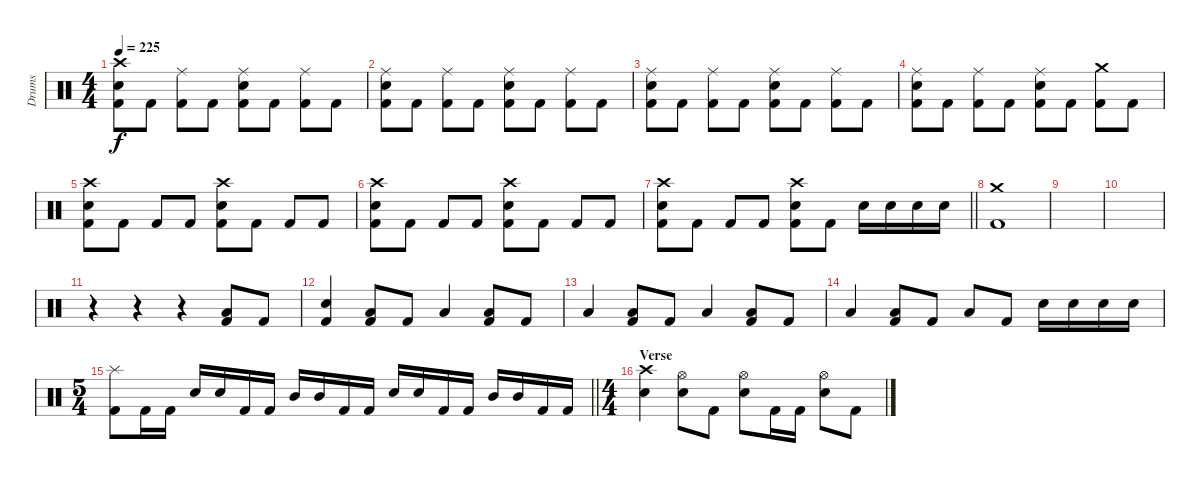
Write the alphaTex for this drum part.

\track ("Drums" "Drums") {instrument percussion}
\staff {score}
\articulation defaults
\ts (4 4)
\tempo 225
\clef neutral
\ks c
("Crash high (hit)" "Electric Snare (hit)" "Kick (hit) 2").8{dy f} "Kick (hit) 2".8 ("Ride (middle)" "Kick (hit) 2").8 "Kick (hit) 2".8 ("Ride (middle)" "Electric Snare (hit)" "Kick (hit) 2").8 "Kick (hit) 2".8 ("Ride (middle)" "Kick (hit) 2").8 "Kick (hit) 2".8 |
("Ride (middle)" "Electric Snare (hit)" "Kick (hit) 2").8 "Kick (hit) 2".8 ("Ride (middle)" "Kick (hit) 2").8 "Kick (hit) 2".8 ("Ride (middle)" "Electric Snare (hit)" "Kick (hit) 2").8 "Kick (hit) 2".8 ("Ride (middle)" "Kick (hit) 2").8 "Kick (hit) 2".8 |
("Ride (middle)" "Electric Snare (hit)" "Kick (hit) 2").8 "Kick (hit) 2".8 ("Ride (middle)" "Kick (hit) 2").8 "Kick (hit) 2".8 ("Ride (middle)" "Electric Snare (hit)" "Kick (hit) 2").8 "Kick (hit) 2".8 ("Ride (middle)" "Kick (hit) 2").8 "Kick (hit) 2".8 |
("Ride (middle)" "Electric Snare (hit)" "Kick (hit) 2").8 "Kick (hit) 2".8 ("Ride (middle)" "Kick (hit) 2").8 "Kick (hit) 2".8 ("Ride (middle)" "Electric Snare (hit)" "Kick (hit) 2").8 "Kick (hit) 2".8 ("Crash medium (hit)" "Kick (hit) 2").8 "Kick (hit) 2".8 |
("Crash high (hit)" "Electric Snare (hit)" "Kick (hit) 2").8 "Kick (hit) 2".8 "Kick (hit) 2".8 "Kick (hit) 2".8 ("Crash high (hit)" "Electric Snare (hit)" "Kick (hit) 2").8 "Kick (hit) 2".8 "Kick (hit) 2".8 "Kick (hit) 2".8 |
("Crash high (hit)" "Electric Snare (hit)" "Kick (hit) 2").8 "Kick (hit) 2".8 "Kick (hit) 2".8 "Kick (hit) 2".8 ("Crash high (hit)" "Electric Snare (hit)" "Kick (hit) 2").8 "Kick (hit) 2".8 "Kick (hit) 2".8 "Kick (hit) 2".8 |
\barLineRight lightlight
("Crash high (hit)" "Electric Snare (hit)" "Kick (hit) 2").8 "Kick (hit) 2".8 "Kick (hit) 2".8 "Kick (hit) 2".8 ("Crash high (hit)" "Electric Snare (hit)" "Kick (hit) 2").8 "Kick (hit) 2".8 "Electric Snare (hit)".16 "Electric Snare (hit)".16 "Electric Snare (hit)".16 "Electric Snare (hit)".16 |
\section ("" "")
("Crash medium (hit)" "Kick (hit) 2").1 |
|
|
r.4 r.4 r.4 ("Low Tom (hit)" "Kick (hit) 2").8 "Kick (hit) 2".8 |
("Electric Snare (hit)" "Kick (hit) 2").4 ("Low Tom (hit)" "Kick (hit) 2").8 "Kick (hit) 2".8 "Low Tom (hit)".4 ("Low Tom (hit)" "Kick (hit) 2").8 "Kick (hit) 2".8 |
"Low Tom (hit)".4 ("Low Tom (hit)" "Kick (hit) 2").8 "Kick (hit) 2".8 "Low Tom (hit)".4 ("Low Tom (hit)" "Kick (hit) 2").8 "Kick (hit) 2".8 |
"Low Tom (hit)".4 ("Low Tom (hit)" "Kick (hit) 2").8 "Kick (hit) 2".8 "Low Tom (hit)".8 "Kick (hit) 2".8 "Electric Snare (hit)".16 "Electric Snare (hit)".16 "Electric Snare (hit)".16 "Electric Snare (hit)".16 |
\ts (5 4)
\barLineRight lightlight
("Splash (hit)" "Kick (hit) 2").8 "Kick (hit) 2".16 "Kick (hit) 2".16 "Electric Snare (hit)".16 "Electric Snare (hit)".16 "Kick (hit) 2".16 "Kick (hit) 2".16 "Mid Tom (hit)".16 "Mid Tom (hit)".16 "Kick (hit) 2".16 "Kick (hit) 2".16 "Electric Snare (hit)".16 "Electric Snare (hit)".16 "Kick (hit) 2".16 "Kick (hit) 2".16 "Mid Tom (hit)".16 "Mid Tom (hit)".16 "Kick (hit) 2".16 "Kick (hit) 2".16 |
\ts (4 4)
\section ("" "Verse")
("Crash high (hit)" "Electric Snare (hit)").4 ("Hi-Hat (open)" "Electric Snare (hit)").8 "Kick (hit) 2".8 ("Hi-Hat (open)" "Electric Snare (hit)").8 "Kick (hit) 2".16 "Kick (hit) 2".16 ("Hi-Hat (open)" "Electric Snare (hit)").8 "Kick (hit) 2".8
